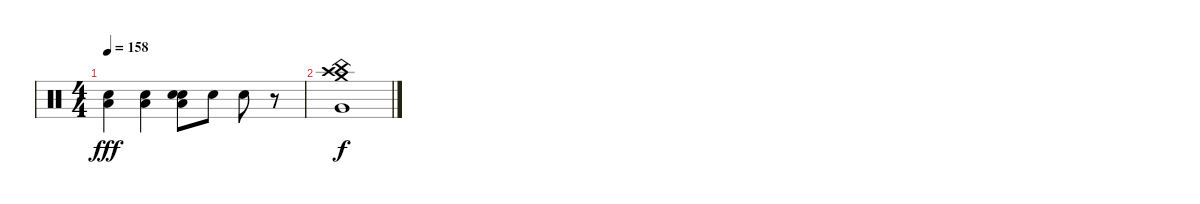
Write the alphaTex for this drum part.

\track "" {instrument percussion}
\staff {score}
\articulation defaults
\ts (4 4)
\tempo 158
\clef neutral
\ks c
("Low Floor Tom (hit)" "Snare (hit) 2").4{dy fff} ("Low Floor Tom (hit)" "Snare (hit) 2").4 ("Electric Snare (hit)" "Low Floor Tom (hit)" "Snare (hit) 2").8 "Electric Snare (hit)".8 "Electric Snare (hit)".8 r.8 |
("Crash medium (hit)" "China (hit)" "Crash high (hit)" "Very Low Tom (hit)").1{dy f}
